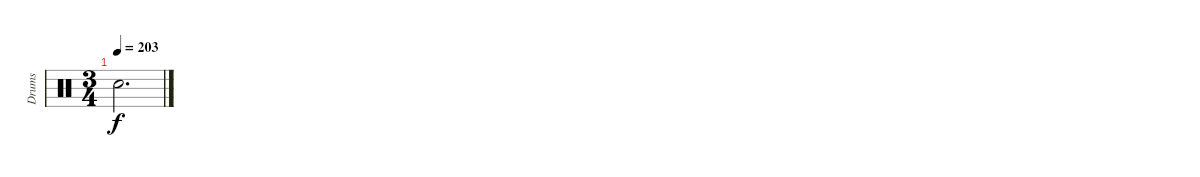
\track ("Drums" "Drums") {instrument percussion}
\staff {score}
\articulation defaults
\ts (3 4)
\tempo 203
\clef neutral
\ks c "Snare (hit)"{t}.2{d dy f}
